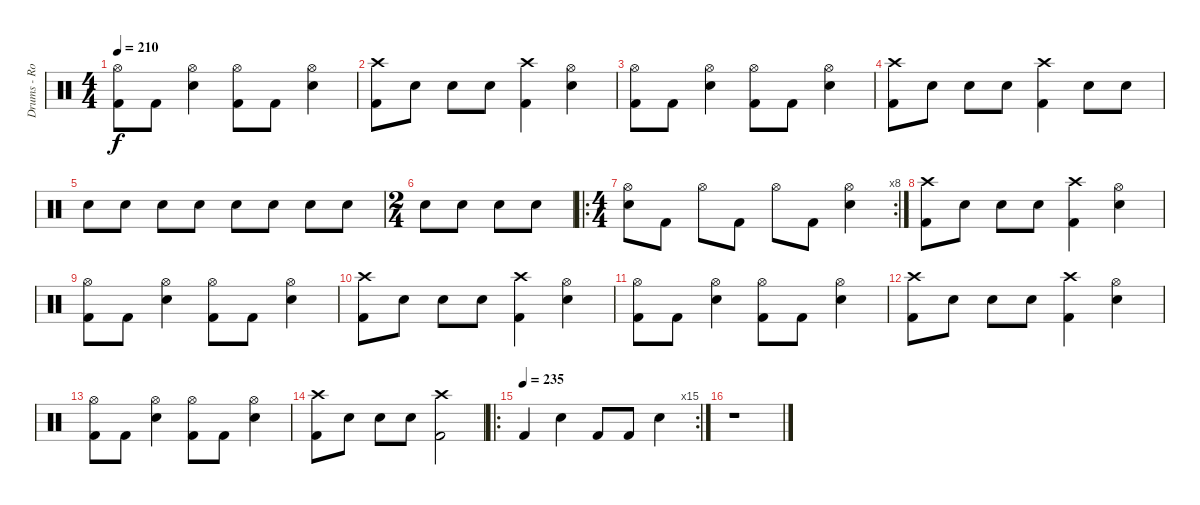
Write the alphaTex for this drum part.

\track ("Drums - Robo" "Drums - Ro") {instrument percussion}
\staff {score}
\articulation defaults
\ts (4 4)
\tempo 210
\clef neutral
\ks c
("Hi-Hat (open)" "Kick (hit) 2").8{dy f} "Kick (hit) 2".8 ("Hi-Hat (open)" "Electric Snare (hit)").4 ("Hi-Hat (open)" "Kick (hit) 2").8 "Kick (hit) 2".8 ("Hi-Hat (open)" "Electric Snare (hit)").4 |
("Crash high (hit)" "Kick (hit) 2").8 "Electric Snare (hit)".8 "Electric Snare (hit)".8 "Electric Snare (hit)".8 ("Crash high (hit)" "Kick (hit) 2").4 ("Hi-Hat (open)" "Electric Snare (hit)").4 |
("Hi-Hat (open)" "Kick (hit) 2").8 "Kick (hit) 2".8 ("Hi-Hat (open)" "Electric Snare (hit)").4 ("Hi-Hat (open)" "Kick (hit) 2").8 "Kick (hit) 2".8 ("Hi-Hat (open)" "Electric Snare (hit)").4 |
("Crash high (hit)" "Kick (hit) 2").8 "Electric Snare (hit)".8 "Electric Snare (hit)".8 "Electric Snare (hit)".8 ("Crash high (hit)" "Kick (hit) 2").4 "Electric Snare (hit)".8 "Electric Snare (hit)".8 |
"Electric Snare (hit)".8 "Electric Snare (hit)".8 "Electric Snare (hit)".8 "Electric Snare (hit)".8 "Electric Snare (hit)".8 "Electric Snare (hit)".8 "Electric Snare (hit)".8 "Electric Snare (hit)".8 |
\ts (2 4)
"Electric Snare (hit)".8 "Electric Snare (hit)".8 "Electric Snare (hit)".8 "Electric Snare (hit)".8 |
\ro
\rc 8
\ts (4 4)
("Hi-Hat (open)" "Electric Snare (hit)").8 "Kick (hit) 2".8 "Hi-Hat (open)".8 "Kick (hit) 2".8 "Hi-Hat (open)".8 "Kick (hit) 2".8 ("Hi-Hat (open)" "Electric Snare (hit)").4 |
("Crash high (hit)" "Kick (hit) 2").8 "Electric Snare (hit)".8 "Electric Snare (hit)".8 "Electric Snare (hit)".8 ("Crash high (hit)" "Kick (hit) 2").4 ("Hi-Hat (open)" "Electric Snare (hit)").4 |
("Hi-Hat (open)" "Kick (hit) 2").8 "Kick (hit) 2".8 ("Hi-Hat (open)" "Electric Snare (hit)").4 ("Hi-Hat (open)" "Kick (hit) 2").8 "Kick (hit) 2".8 ("Hi-Hat (open)" "Electric Snare (hit)").4 |
("Crash high (hit)" "Kick (hit) 2").8 "Electric Snare (hit)".8 "Electric Snare (hit)".8 "Electric Snare (hit)".8 ("Crash high (hit)" "Kick (hit) 2").4 ("Hi-Hat (open)" "Electric Snare (hit)").4 |
("Hi-Hat (open)" "Kick (hit) 2").8 "Kick (hit) 2".8 ("Hi-Hat (open)" "Electric Snare (hit)").4 ("Hi-Hat (open)" "Kick (hit) 2").8 "Kick (hit) 2".8 ("Hi-Hat (open)" "Electric Snare (hit)").4 |
("Crash high (hit)" "Kick (hit) 2").8 "Electric Snare (hit)".8 "Electric Snare (hit)".8 "Electric Snare (hit)".8 ("Crash high (hit)" "Kick (hit) 2").4 ("Hi-Hat (open)" "Electric Snare (hit)").4 |
("Hi-Hat (open)" "Kick (hit) 2").8 "Kick (hit) 2".8 ("Hi-Hat (open)" "Electric Snare (hit)").4 ("Hi-Hat (open)" "Kick (hit) 2").8 "Kick (hit) 2".8 ("Hi-Hat (open)" "Electric Snare (hit)").4 |
("Crash high (hit)" "Kick (hit) 2").8 "Electric Snare (hit)".8 "Electric Snare (hit)".8 "Electric Snare (hit)".8 ("Crash high (hit)" "Kick (hit) 2").2 |
\ro
\rc 15
\tempo (235)
"Kick (hit) 2".4 "Electric Snare (hit)".4 "Kick (hit) 2".8 "Kick (hit) 2".8 "Electric Snare (hit)".4 |
r.1
